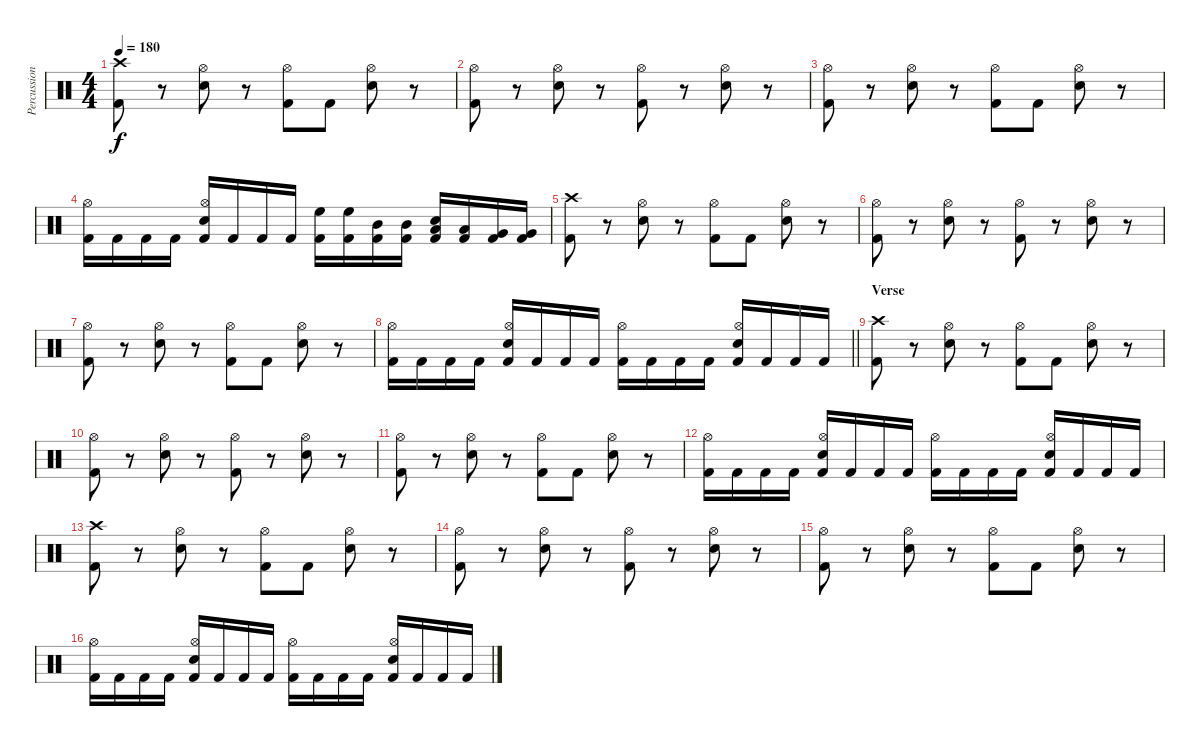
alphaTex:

\track ("Percussion" "Percussion") {instrument percussion}
\staff {score}
\articulation defaults
\ts (4 4)
\tempo 180
\clef neutral
\ks c
("Crash high (hit)" "Kick (hit) 2").8{dy f} r.8 ("Hi-Hat (open)" "Snare (hit) 2").8 r.8 ("Hi-Hat (open)" "Kick (hit) 2").8 "Kick (hit) 2".8 ("Hi-Hat (open)" "Snare (hit) 2").8 r.8 |
("Hi-Hat (open)" "Kick (hit) 2").8 r.8 ("Hi-Hat (open)" "Snare (hit) 2").8 r.8 ("Hi-Hat (open)" "Kick (hit) 2").8 r.8 ("Hi-Hat (open)" "Snare (hit) 2").8 r.8 |
("Hi-Hat (open)" "Kick (hit) 2").8 r.8 ("Hi-Hat (open)" "Snare (hit) 2").8 r.8 ("Hi-Hat (open)" "Kick (hit) 2").8 "Kick (hit) 2".8 ("Hi-Hat (open)" "Snare (hit) 2").8 r.8 |
("Hi-Hat (open)" "Kick (hit) 2").16 "Kick (hit) 2".16 "Kick (hit) 2".16 "Kick (hit) 2".16 ("Hi-Hat (open)" "Snare (hit) 2" "Kick (hit) 2").16 "Kick (hit) 2".16 "Kick (hit) 2".16 "Kick (hit) 2".16 ("High Floor Tom (hit)" "Kick (hit) 2").16 ("High Floor Tom (hit)" "Kick (hit) 2").16 ("Mid Tom (hit)" "Kick (hit) 2").16 ("Mid Tom (hit)" "Kick (hit) 2").16 ("Low Tom (hit)" "Snare (hit) 2" "Kick (hit) 2").16 ("Low Tom (hit)" "Kick (hit) 2").16 ("Very Low Tom (hit)" "Kick (hit) 2").16 ("Very Low Tom (hit)" "Kick (hit) 2").16 |
("Crash high (hit)" "Kick (hit) 2").8 r.8 ("Hi-Hat (open)" "Snare (hit) 2").8 r.8 ("Hi-Hat (open)" "Kick (hit) 2").8 "Kick (hit) 2".8 ("Hi-Hat (open)" "Snare (hit) 2").8 r.8 |
("Hi-Hat (open)" "Kick (hit) 2").8 r.8 ("Hi-Hat (open)" "Snare (hit) 2").8 r.8 ("Hi-Hat (open)" "Kick (hit) 2").8 r.8 ("Hi-Hat (open)" "Snare (hit) 2").8 r.8 |
("Hi-Hat (open)" "Kick (hit) 2").8 r.8 ("Hi-Hat (open)" "Snare (hit) 2").8 r.8 ("Hi-Hat (open)" "Kick (hit) 2").8 "Kick (hit) 2".8 ("Hi-Hat (open)" "Snare (hit) 2").8 r.8 |
\barLineRight lightlight
("Hi-Hat (open)" "Kick (hit) 2").16 "Kick (hit) 2".16 "Kick (hit) 2".16 "Kick (hit) 2".16 ("Hi-Hat (open)" "Snare (hit) 2" "Kick (hit) 2").16 "Kick (hit) 2".16 "Kick (hit) 2".16 "Kick (hit) 2".16 ("Hi-Hat (open)" "Kick (hit) 2").16 "Kick (hit) 2".16 "Kick (hit) 2".16 "Kick (hit) 2".16 ("Hi-Hat (open)" "Snare (hit) 2" "Kick (hit) 2").16 "Kick (hit) 2".16 "Kick (hit) 2".16 "Kick (hit) 2".16 |
\section ("" "Verse")
("Crash high (hit)" "Kick (hit) 2").8 r.8 ("Hi-Hat (open)" "Snare (hit) 2").8 r.8 ("Hi-Hat (open)" "Kick (hit) 2").8 "Kick (hit) 2".8 ("Hi-Hat (open)" "Snare (hit) 2").8 r.8 |
("Hi-Hat (open)" "Kick (hit) 2").8 r.8 ("Hi-Hat (open)" "Snare (hit) 2").8 r.8 ("Hi-Hat (open)" "Kick (hit) 2").8 r.8 ("Hi-Hat (open)" "Snare (hit) 2").8 r.8 |
("Hi-Hat (open)" "Kick (hit) 2").8 r.8 ("Hi-Hat (open)" "Snare (hit) 2").8 r.8 ("Hi-Hat (open)" "Kick (hit) 2").8 "Kick (hit) 2".8 ("Hi-Hat (open)" "Snare (hit) 2").8 r.8 |
("Hi-Hat (open)" "Kick (hit) 2").16 "Kick (hit) 2".16 "Kick (hit) 2".16 "Kick (hit) 2".16 ("Hi-Hat (open)" "Snare (hit) 2" "Kick (hit) 2").16 "Kick (hit) 2".16 "Kick (hit) 2".16 "Kick (hit) 2".16 ("Hi-Hat (open)" "Kick (hit) 2").16 "Kick (hit) 2".16 "Kick (hit) 2".16 "Kick (hit) 2".16 ("Hi-Hat (open)" "Snare (hit) 2" "Kick (hit) 2").16 "Kick (hit) 2".16 "Kick (hit) 2".16 "Kick (hit) 2".16 |
("Crash high (hit)" "Kick (hit) 2").8 r.8 ("Hi-Hat (open)" "Snare (hit) 2").8 r.8 ("Hi-Hat (open)" "Kick (hit) 2").8 "Kick (hit) 2".8 ("Hi-Hat (open)" "Snare (hit) 2").8 r.8 |
("Hi-Hat (open)" "Kick (hit) 2").8 r.8 ("Hi-Hat (open)" "Snare (hit) 2").8 r.8 ("Hi-Hat (open)" "Kick (hit) 2").8 r.8 ("Hi-Hat (open)" "Snare (hit) 2").8 r.8 |
("Hi-Hat (open)" "Kick (hit) 2").8 r.8 ("Hi-Hat (open)" "Snare (hit) 2").8 r.8 ("Hi-Hat (open)" "Kick (hit) 2").8 "Kick (hit) 2".8 ("Hi-Hat (open)" "Snare (hit) 2").8 r.8 |
("Hi-Hat (open)" "Kick (hit) 2").16 "Kick (hit) 2".16 "Kick (hit) 2".16 "Kick (hit) 2".16 ("Hi-Hat (open)" "Snare (hit) 2" "Kick (hit) 2").16 "Kick (hit) 2".16 "Kick (hit) 2".16 "Kick (hit) 2".16 ("Hi-Hat (open)" "Kick (hit) 2").16 "Kick (hit) 2".16 "Kick (hit) 2".16 "Kick (hit) 2".16 ("Hi-Hat (open)" "Snare (hit) 2" "Kick (hit) 2").16 "Kick (hit) 2".16 "Kick (hit) 2".16 "Kick (hit) 2".16
